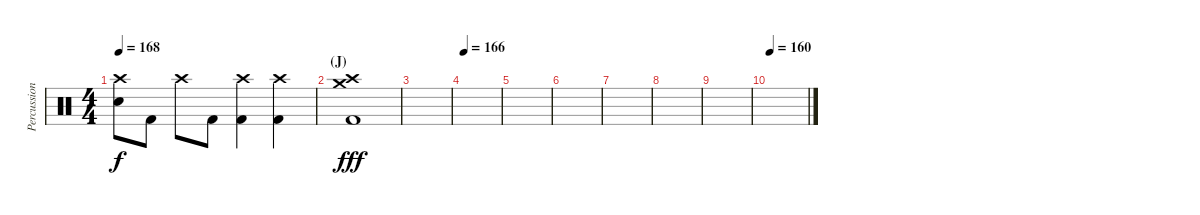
\track ("Percussion" "Percussion") {instrument percussion}
\staff {score}
\articulation defaults
\ts (4 4)
\tempo 168
\clef neutral
\ks c
("Crash high (hit)" "Snare (hit) 2").8{dy f} "Kick (hit) 2".8 "Crash high (hit)".8 "Kick (hit) 2".8 ("Crash high (hit)" "Kick (hit) 2").4 ("Crash high (hit)" "Kick (hit) 2").4 |
\section ("" "(J)")
("Crash high (hit)" "Crash medium (hit)" "Kick (hit) 2").1{dy fff} |
|
\tempo 166
|
|
|
|
|
|
\tempo 160
